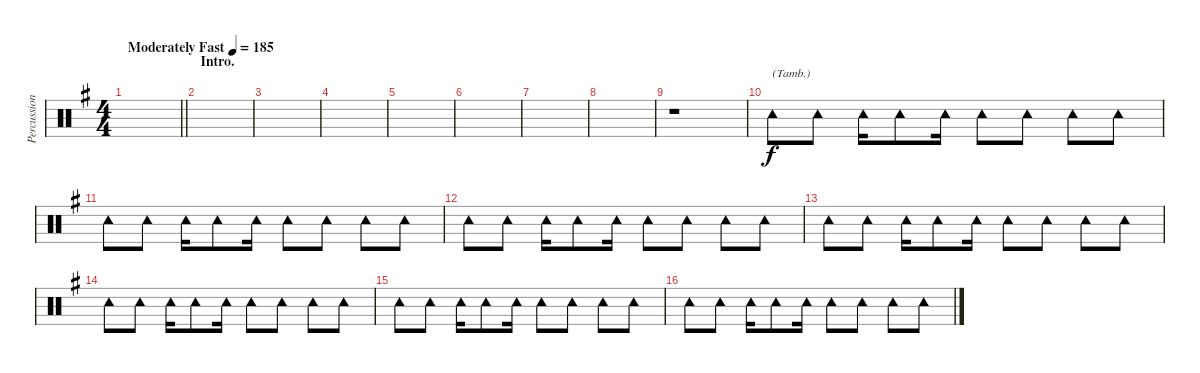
\track ("Percussion I" "Percussion") {instrument percussion}
\staff {score}
\articulation defaults
\ts (4 4)
\tempo (185 "Moderately Fast")
\clef neutral
\barLineRight lightlight
\ks g
|
\section ("" "Intro.")
|
|
|
|
|
|
|
r.1 |
"Tambourine (hit)".8{txt "(Tamb.)"} "Tambourine (hit)".8 "Tambourine (hit)".16 "Tambourine (hit)".8 "Tambourine (hit)".16 "Tambourine (hit)".8 "Tambourine (hit)".8 "Tambourine (hit)".8 "Tambourine (hit)".8 |
"Tambourine (hit)".8 "Tambourine (hit)".8 "Tambourine (hit)".16 "Tambourine (hit)".8 "Tambourine (hit)".16 "Tambourine (hit)".8 "Tambourine (hit)".8 "Tambourine (hit)".8 "Tambourine (hit)".8 |
"Tambourine (hit)".8 "Tambourine (hit)".8 "Tambourine (hit)".16 "Tambourine (hit)".8 "Tambourine (hit)".16 "Tambourine (hit)".8 "Tambourine (hit)".8 "Tambourine (hit)".8 "Tambourine (hit)".8 |
"Tambourine (hit)".8 "Tambourine (hit)".8 "Tambourine (hit)".16 "Tambourine (hit)".8 "Tambourine (hit)".16 "Tambourine (hit)".8 "Tambourine (hit)".8 "Tambourine (hit)".8 "Tambourine (hit)".8 |
"Tambourine (hit)".8 "Tambourine (hit)".8 "Tambourine (hit)".16 "Tambourine (hit)".8 "Tambourine (hit)".16 "Tambourine (hit)".8 "Tambourine (hit)".8 "Tambourine (hit)".8 "Tambourine (hit)".8 |
"Tambourine (hit)".8 "Tambourine (hit)".8 "Tambourine (hit)".16 "Tambourine (hit)".8 "Tambourine (hit)".16 "Tambourine (hit)".8 "Tambourine (hit)".8 "Tambourine (hit)".8 "Tambourine (hit)".8 |
"Tambourine (hit)".8 "Tambourine (hit)".8 "Tambourine (hit)".16 "Tambourine (hit)".8 "Tambourine (hit)".16 "Tambourine (hit)".8 "Tambourine (hit)".8 "Tambourine (hit)".8 "Tambourine (hit)".8
